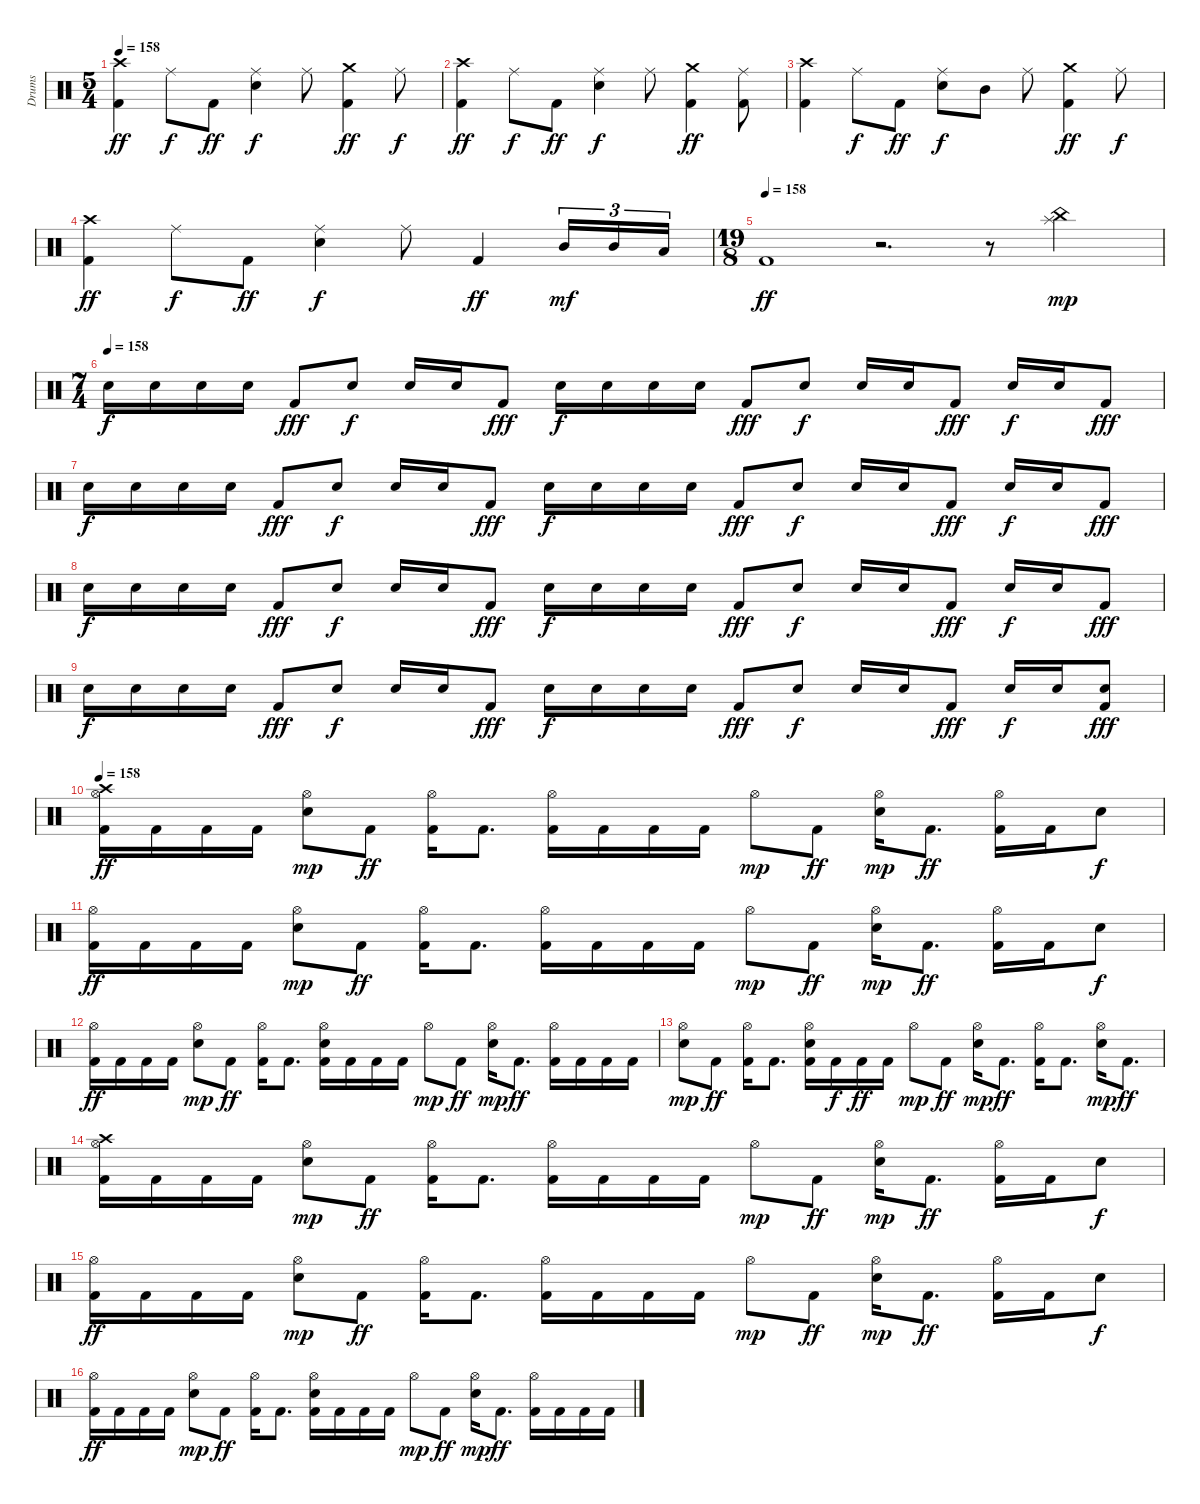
\track ("Drums" "Drums") {instrument percussion}
\staff {score}
\articulation defaults
\ts (5 4)
\tempo 158
\clef neutral
\ks c
("Crash high (hit)" "Kick (hit) 2").4{dy ff} "Ride (middle)".8{dy f} "Kick (hit) 2".8{dy ff} ("Ride (middle)" "Electric Snare (hit)").4{dy f} "Ride (middle)".8 ("Crash medium (hit)" "Kick (hit) 2").4{dy ff} "Ride (middle)".8{dy f} |
("Crash high (hit)" "Kick (hit) 2").4{dy ff} "Ride (middle)".8{dy f} "Kick (hit) 2".8{dy ff} ("Ride (middle)" "Electric Snare (hit)").4{dy f} "Ride (middle)".8 ("Crash medium (hit)" "Kick (hit) 2").4{dy ff} ("Ride (middle)" "Kick (hit) 2").8 |
("Crash high (hit)" "Kick (hit) 2").4 "Ride (middle)".8{dy f} "Kick (hit) 2".8{dy ff} ("Ride (middle)" "Electric Snare (hit)").8{dy f} "Mid Tom (hit)".8 "Ride (middle)".8 ("Crash medium (hit)" "Kick (hit) 2").4{dy ff} "Ride (middle)".8{dy f} |
("Crash high (hit)" "Kick (hit) 2").4{dy ff} "Ride (middle)".8{dy f} "Kick (hit) 2".8{dy ff} ("Ride (middle)" "Electric Snare (hit)").4{dy f} "Ride (middle)".8 "Kick (hit) 2".4{dy ff} "Mid Tom (hit)".16{tu (3 2) dy mf} "Mid Tom (hit)".16{tu (3 2)} "Low Tom (hit)".16{tu (3 2)} |
\ts (19 8)
\tempo (158)
"Kick (hit) 2".1{dy ff} r.2{d} r.8 ("Splash (hit)" "China (hit)").2{dy mp} |
\ts (7 4)
\tempo (158)
"Electric Snare (hit)".16{dy f} "Electric Snare (hit)".16 "Electric Snare (hit)".16 "Electric Snare (hit)".16 "Kick (hit) 2".8{dy fff} "Electric Snare (hit)".8{dy f} "Electric Snare (hit)".16 "Electric Snare (hit)".16 "Kick (hit) 2".8{dy fff} "Electric Snare (hit)".16{dy f} "Electric Snare (hit)".16 "Electric Snare (hit)".16 "Electric Snare (hit)".16 "Kick (hit) 2".8{dy fff} "Electric Snare (hit)".8{dy f} "Electric Snare (hit)".16 "Electric Snare (hit)".16 "Kick (hit) 2".8{dy fff} "Electric Snare (hit)".16{dy f} "Electric Snare (hit)".16 "Kick (hit) 2".8{dy fff} |
"Electric Snare (hit)".16{dy f} "Electric Snare (hit)".16 "Electric Snare (hit)".16 "Electric Snare (hit)".16 "Kick (hit) 2".8{dy fff} "Electric Snare (hit)".8{dy f} "Electric Snare (hit)".16 "Electric Snare (hit)".16 "Kick (hit) 2".8{dy fff} "Electric Snare (hit)".16{dy f} "Electric Snare (hit)".16 "Electric Snare (hit)".16 "Electric Snare (hit)".16 "Kick (hit) 2".8{dy fff} "Electric Snare (hit)".8{dy f} "Electric Snare (hit)".16 "Electric Snare (hit)".16 "Kick (hit) 2".8{dy fff} "Electric Snare (hit)".16{dy f} "Electric Snare (hit)".16 "Kick (hit) 2".8{dy fff} |
"Electric Snare (hit)".16{dy f} "Electric Snare (hit)".16 "Electric Snare (hit)".16 "Electric Snare (hit)".16 "Kick (hit) 2".8{dy fff} "Electric Snare (hit)".8{dy f} "Electric Snare (hit)".16 "Electric Snare (hit)".16 "Kick (hit) 2".8{dy fff} "Electric Snare (hit)".16{dy f} "Electric Snare (hit)".16 "Electric Snare (hit)".16 "Electric Snare (hit)".16 "Kick (hit) 2".8{dy fff} "Electric Snare (hit)".8{dy f} "Electric Snare (hit)".16 "Electric Snare (hit)".16 "Kick (hit) 2".8{dy fff} "Electric Snare (hit)".16{dy f} "Electric Snare (hit)".16 "Kick (hit) 2".8{dy fff} |
"Electric Snare (hit)".16{dy f} "Electric Snare (hit)".16 "Electric Snare (hit)".16 "Electric Snare (hit)".16 "Kick (hit) 2".8{dy fff} "Electric Snare (hit)".8{dy f} "Electric Snare (hit)".16 "Electric Snare (hit)".16 "Kick (hit) 2".8{dy fff} "Electric Snare (hit)".16{dy f} "Electric Snare (hit)".16 "Electric Snare (hit)".16 "Electric Snare (hit)".16 "Kick (hit) 2".8{dy fff} "Electric Snare (hit)".8{dy f} "Electric Snare (hit)".16 "Electric Snare (hit)".16 "Kick (hit) 2".8{dy fff} "Electric Snare (hit)".16{dy f} "Electric Snare (hit)".16 ("Electric Snare (hit)" "Kick (hit) 2").8{dy fff} |
\tempo 158
("Crash high (hit)" "Hi-Hat (open)" "Kick (hit) 2").16{dy ff} "Kick (hit) 2".16 "Kick (hit) 2".16 "Kick (hit) 2".16 ("Hi-Hat (open)" "Electric Snare (hit)").8{dy mp} "Kick (hit) 2".8{dy ff} ("Hi-Hat (open)" "Kick (hit) 2").16 "Kick (hit) 2".8{d} ("Hi-Hat (open)" "Kick (hit) 2").16 "Kick (hit) 2".16 "Kick (hit) 2".16 "Kick (hit) 2".16 "Hi-Hat (open)".8{dy mp} "Kick (hit) 2".8{dy ff} ("Hi-Hat (open)" "Electric Snare (hit)").16{dy mp} "Kick (hit) 2".8{d dy ff} ("Hi-Hat (open)" "Kick (hit) 2").16 "Kick (hit) 2".16 "Electric Snare (hit)".8{dy f} |
("Hi-Hat (open)" "Kick (hit) 2").16{dy ff} "Kick (hit) 2".16 "Kick (hit) 2".16 "Kick (hit) 2".16 ("Hi-Hat (open)" "Electric Snare (hit)").8{dy mp} "Kick (hit) 2".8{dy ff} ("Hi-Hat (open)" "Kick (hit) 2").16 "Kick (hit) 2".8{d} ("Hi-Hat (open)" "Kick (hit) 2").16 "Kick (hit) 2".16 "Kick (hit) 2".16 "Kick (hit) 2".16 "Hi-Hat (open)".8{dy mp} "Kick (hit) 2".8{dy ff} ("Hi-Hat (open)" "Electric Snare (hit)").16{dy mp} "Kick (hit) 2".8{d dy ff} ("Hi-Hat (open)" "Kick (hit) 2").16 "Kick (hit) 2".16 "Electric Snare (hit)".8{dy f} |
("Hi-Hat (open)" "Kick (hit) 2").16{dy ff} "Kick (hit) 2".16 "Kick (hit) 2".16 "Kick (hit) 2".16 ("Hi-Hat (open)" "Electric Snare (hit)").8{dy mp} "Kick (hit) 2".8{dy ff} ("Hi-Hat (open)" "Kick (hit) 2").16 "Kick (hit) 2".8{d} ("Hi-Hat (open)" "Electric Snare (hit)" "Kick (hit) 2").16 "Kick (hit) 2".16 "Kick (hit) 2".16 "Kick (hit) 2".16 "Hi-Hat (open)".8{dy mp} "Kick (hit) 2".8{dy ff} ("Hi-Hat (open)" "Electric Snare (hit)").16{dy mp} "Kick (hit) 2".8{d dy ff} ("Hi-Hat (open)" "Kick (hit) 2").16 "Kick (hit) 2".16 "Kick (hit) 2".16 "Kick (hit) 2".16 |
("Hi-Hat (open)" "Electric Snare (hit)").8{dy mp} "Kick (hit) 2".8{dy ff} ("Hi-Hat (open)" "Kick (hit) 2").16 "Kick (hit) 2".8{d} ("Hi-Hat (open)" "Electric Snare (hit)" "Kick (hit) 2").16 "Kick (hit) 2".16{dy f} "Kick (hit) 2".16{dy ff} "Kick (hit) 2".16 "Hi-Hat (open)".8{dy mp} "Kick (hit) 2".8{dy ff} ("Hi-Hat (open)" "Electric Snare (hit)").16{dy mp} "Kick (hit) 2".8{d dy ff} ("Hi-Hat (open)" "Kick (hit) 2").16 "Kick (hit) 2".8{d} ("Hi-Hat (open)" "Electric Snare (hit)").16{dy mp} "Kick (hit) 2".8{d dy ff} |
("Crash high (hit)" "Hi-Hat (open)" "Kick (hit) 2").16 "Kick (hit) 2".16 "Kick (hit) 2".16 "Kick (hit) 2".16 ("Hi-Hat (open)" "Electric Snare (hit)").8{dy mp} "Kick (hit) 2".8{dy ff} ("Hi-Hat (open)" "Kick (hit) 2").16 "Kick (hit) 2".8{d} ("Hi-Hat (open)" "Kick (hit) 2").16 "Kick (hit) 2".16 "Kick (hit) 2".16 "Kick (hit) 2".16 "Hi-Hat (open)".8{dy mp} "Kick (hit) 2".8{dy ff} ("Hi-Hat (open)" "Electric Snare (hit)").16{dy mp} "Kick (hit) 2".8{d dy ff} ("Hi-Hat (open)" "Kick (hit) 2").16 "Kick (hit) 2".16 "Electric Snare (hit)".8{dy f} |
("Hi-Hat (open)" "Kick (hit) 2").16{dy ff} "Kick (hit) 2".16 "Kick (hit) 2".16 "Kick (hit) 2".16 ("Hi-Hat (open)" "Electric Snare (hit)").8{dy mp} "Kick (hit) 2".8{dy ff} ("Hi-Hat (open)" "Kick (hit) 2").16 "Kick (hit) 2".8{d} ("Hi-Hat (open)" "Kick (hit) 2").16 "Kick (hit) 2".16 "Kick (hit) 2".16 "Kick (hit) 2".16 "Hi-Hat (open)".8{dy mp} "Kick (hit) 2".8{dy ff} ("Hi-Hat (open)" "Electric Snare (hit)").16{dy mp} "Kick (hit) 2".8{d dy ff} ("Hi-Hat (open)" "Kick (hit) 2").16 "Kick (hit) 2".16 "Electric Snare (hit)".8{dy f} |
("Hi-Hat (open)" "Kick (hit) 2").16{dy ff} "Kick (hit) 2".16 "Kick (hit) 2".16 "Kick (hit) 2".16 ("Hi-Hat (open)" "Electric Snare (hit)").8{dy mp} "Kick (hit) 2".8{dy ff} ("Hi-Hat (open)" "Kick (hit) 2").16 "Kick (hit) 2".8{d} ("Hi-Hat (open)" "Electric Snare (hit)" "Kick (hit) 2").16 "Kick (hit) 2".16 "Kick (hit) 2".16 "Kick (hit) 2".16 "Hi-Hat (open)".8{dy mp} "Kick (hit) 2".8{dy ff} ("Hi-Hat (open)" "Electric Snare (hit)").16{dy mp} "Kick (hit) 2".8{d dy ff} ("Hi-Hat (open)" "Kick (hit) 2").16 "Kick (hit) 2".16 "Kick (hit) 2".16 "Kick (hit) 2".16
